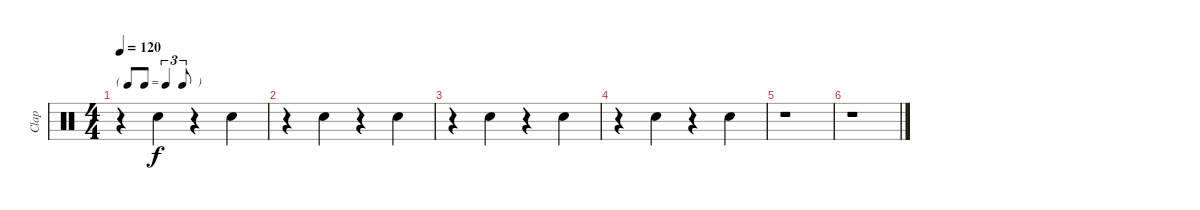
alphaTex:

\track ("Clap" "Clap") {instrument percussion}
\staff {score}
\articulation defaults
\ts (4 4)
\tf triplet8th
\tempo 120
\clef neutral
\ks c
r.4{dy f} "Hand Clap (hit)".4 r.4 "Hand Clap (hit)".4 |
r.4 "Hand Clap (hit)".4 r.4 "Hand Clap (hit)".4 |
r.4 "Hand Clap (hit)".4 r.4 "Hand Clap (hit)".4 |
r.4 "Hand Clap (hit)".4 r.4 "Hand Clap (hit)".4 |
r.1 |
r.1
